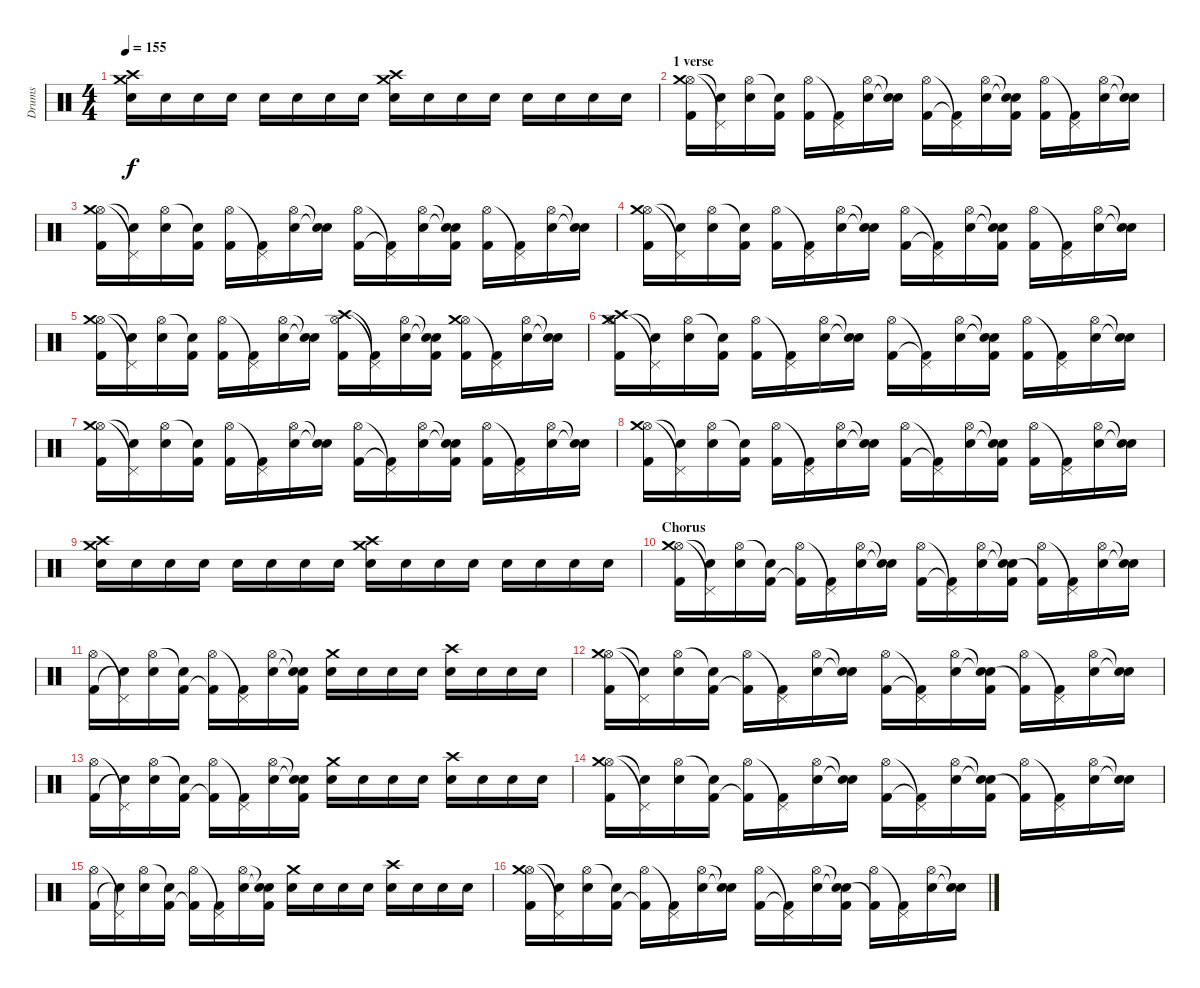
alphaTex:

\track ("Drums" "Drums") {instrument percussion}
\staff {score}
\articulation defaults
\ts (4 4)
\tempo 155
\clef neutral
\ks c
("Crash high (hit)" "Crash medium (hit)" "Snare (hit) 2").16{dy f} "Snare (hit) 2".16 "Snare (hit) 2".16 "Snare (hit) 2".16 "Snare (hit) 2".16 "Snare (hit) 2".16 "Snare (hit) 2".16 "Snare (hit) 2".16 ("Crash high (hit)" "Crash medium (hit)" "Electric Snare (hit)").16 "Electric Snare (hit)".16 "Electric Snare (hit)".16 "Electric Snare (hit)".16 "Electric Snare (hit)".16 "Electric Snare (hit)".16 "Electric Snare (hit)".16 "Electric Snare (hit)".16 |
\section ("" "1 verse")
("Hi-Hat (open)" "Crash medium (hit)" "Kick (hit) 2").16 ("Pedal Hi-Hat (hit)"{t} "Snare (hit)"{t}).16 ("Hi-Hat (open)" "Electric Snare (hit)").16 ("Snare (hit)"{t} "Kick (hit) 2").16 ("Hi-Hat (open)" "Kick (hit) 2").16 ("Pedal Hi-Hat (hit)"{t} "Kick (hit) 2").16 ("Hi-Hat (open)" "Electric Snare (hit)").16 ("Snare (hit)"{t} "Electric Snare (hit)"{t}).16 ("Hi-Hat (open)" "Kick (hit) 2").16 ("Pedal Hi-Hat (hit)"{t} "Kick (hit) 2"{t}).16 ("Hi-Hat (open)" "Electric Snare (hit)").16 ("Snare (hit)"{t} "Electric Snare (hit)"{t} "Kick (hit) 2").16 ("Hi-Hat (open)" "Kick (hit) 2").16 ("Pedal Hi-Hat (hit)"{t} "Kick (hit) 2").16 ("Hi-Hat (open)" "Electric Snare (hit)").16 ("Snare (hit)"{t} "Electric Snare (hit)"{t}).16 |
("Hi-Hat (open)" "Crash medium (hit)" "Kick (hit) 2").16 ("Pedal Hi-Hat (hit)"{t} "Snare (hit)"{t}).16 ("Hi-Hat (open)" "Electric Snare (hit)").16 ("Snare (hit)"{t} "Kick (hit) 2").16 ("Hi-Hat (open)" "Kick (hit) 2").16 ("Pedal Hi-Hat (hit)"{t} "Kick (hit) 2").16 ("Hi-Hat (open)" "Electric Snare (hit)").16 ("Snare (hit)"{t} "Electric Snare (hit)"{t}).16 ("Hi-Hat (open)" "Kick (hit) 2").16 ("Pedal Hi-Hat (hit)"{t} "Kick (hit) 2"{t}).16 ("Hi-Hat (open)" "Electric Snare (hit)").16 ("Snare (hit)"{t} "Electric Snare (hit)"{t} "Kick (hit) 2").16 ("Hi-Hat (open)" "Kick (hit) 2").16 ("Pedal Hi-Hat (hit)"{t} "Kick (hit) 2").16 ("Hi-Hat (open)" "Electric Snare (hit)").16 ("Snare (hit)"{t} "Electric Snare (hit)"{t}).16 |
("Hi-Hat (open)" "Crash medium (hit)" "Kick (hit) 2").16 ("Pedal Hi-Hat (hit)"{t} "Snare (hit)"{t}).16 ("Hi-Hat (open)" "Electric Snare (hit)").16 ("Snare (hit)"{t} "Kick (hit) 2").16 ("Hi-Hat (open)" "Kick (hit) 2").16 ("Pedal Hi-Hat (hit)"{t} "Kick (hit) 2").16 ("Hi-Hat (open)" "Electric Snare (hit)").16 ("Snare (hit)"{t} "Electric Snare (hit)"{t}).16 ("Hi-Hat (open)" "Kick (hit) 2").16 ("Pedal Hi-Hat (hit)"{t} "Kick (hit) 2"{t}).16 ("Hi-Hat (open)" "Electric Snare (hit)").16 ("Snare (hit)"{t} "Electric Snare (hit)"{t} "Kick (hit) 2").16 ("Hi-Hat (open)" "Kick (hit) 2").16 ("Pedal Hi-Hat (hit)"{t} "Kick (hit) 2").16 ("Hi-Hat (open)" "Electric Snare (hit)").16 ("Snare (hit)"{t} "Electric Snare (hit)"{t}).16 |
("Hi-Hat (open)" "Crash medium (hit)" "Kick (hit) 2").16 ("Pedal Hi-Hat (hit)"{t} "Snare (hit)"{t}).16 ("Hi-Hat (open)" "Electric Snare (hit)").16 ("Snare (hit)"{t} "Kick (hit) 2").16 ("Hi-Hat (open)" "Kick (hit) 2").16 ("Pedal Hi-Hat (hit)"{t} "Kick (hit) 2").16 ("Hi-Hat (open)" "Electric Snare (hit)").16 ("Snare (hit)"{t} "Electric Snare (hit)"{t}).16 ("Hi-Hat (open)" "Crash high (hit)" "Kick (hit) 2").16 ("Pedal Hi-Hat (hit)"{t} "Kick (hit) 2"{t}).16 ("Hi-Hat (open)" "Electric Snare (hit)").16 ("Snare (hit)"{t} "Electric Snare (hit)"{t} "Kick (hit) 2").16 ("Hi-Hat (open)" "Crash medium (hit)" "Kick (hit) 2").16 ("Pedal Hi-Hat (hit)"{t} "Kick (hit) 2").16 ("Hi-Hat (open)" "Electric Snare (hit)").16 ("Snare (hit)"{t} "Electric Snare (hit)"{t}).16 |
("Hi-Hat (open)" "Crash medium (hit)" "Crash high (hit)" "Kick (hit) 2").16 ("Pedal Hi-Hat (hit)"{t} "Snare (hit)"{t}).16 ("Hi-Hat (open)" "Electric Snare (hit)").16 ("Snare (hit)"{t} "Kick (hit) 2").16 ("Hi-Hat (open)" "Kick (hit) 2").16 ("Pedal Hi-Hat (hit)"{t} "Kick (hit) 2").16 ("Hi-Hat (open)" "Electric Snare (hit)").16 ("Snare (hit)"{t} "Electric Snare (hit)"{t}).16 ("Hi-Hat (open)" "Kick (hit) 2").16 ("Pedal Hi-Hat (hit)"{t} "Kick (hit) 2"{t}).16 ("Hi-Hat (open)" "Electric Snare (hit)").16 ("Snare (hit)"{t} "Electric Snare (hit)"{t} "Kick (hit) 2").16 ("Hi-Hat (open)" "Kick (hit) 2").16 ("Pedal Hi-Hat (hit)"{t} "Kick (hit) 2").16 ("Hi-Hat (open)" "Electric Snare (hit)").16 ("Snare (hit)"{t} "Electric Snare (hit)"{t}).16 |
("Hi-Hat (open)" "Crash medium (hit)" "Kick (hit) 2").16 ("Pedal Hi-Hat (hit)"{t} "Snare (hit)"{t}).16 ("Hi-Hat (open)" "Electric Snare (hit)").16 ("Snare (hit)"{t} "Kick (hit) 2").16 ("Hi-Hat (open)" "Kick (hit) 2").16 ("Pedal Hi-Hat (hit)"{t} "Kick (hit) 2").16 ("Hi-Hat (open)" "Electric Snare (hit)").16 ("Snare (hit)"{t} "Electric Snare (hit)"{t}).16 ("Hi-Hat (open)" "Kick (hit) 2").16 ("Pedal Hi-Hat (hit)"{t} "Kick (hit) 2"{t}).16 ("Hi-Hat (open)" "Electric Snare (hit)").16 ("Snare (hit)"{t} "Electric Snare (hit)"{t} "Kick (hit) 2").16 ("Hi-Hat (open)" "Kick (hit) 2").16 ("Pedal Hi-Hat (hit)"{t} "Kick (hit) 2").16 ("Hi-Hat (open)" "Electric Snare (hit)").16 ("Snare (hit)"{t} "Electric Snare (hit)"{t}).16 |
("Hi-Hat (open)" "Crash medium (hit)" "Kick (hit) 2").16 ("Pedal Hi-Hat (hit)"{t} "Snare (hit)"{t}).16 ("Hi-Hat (open)" "Electric Snare (hit)").16 ("Snare (hit)"{t} "Kick (hit) 2").16 ("Hi-Hat (open)" "Kick (hit) 2").16 ("Pedal Hi-Hat (hit)"{t} "Kick (hit) 2").16 ("Hi-Hat (open)" "Electric Snare (hit)").16 ("Snare (hit)"{t} "Electric Snare (hit)"{t}).16 ("Hi-Hat (open)" "Kick (hit) 2").16 ("Pedal Hi-Hat (hit)"{t} "Kick (hit) 2"{t}).16 ("Hi-Hat (open)" "Electric Snare (hit)").16 ("Snare (hit)"{t} "Electric Snare (hit)"{t} "Kick (hit) 2").16 ("Hi-Hat (open)" "Kick (hit) 2").16 ("Pedal Hi-Hat (hit)"{t} "Kick (hit) 2").16 ("Hi-Hat (open)" "Electric Snare (hit)").16 ("Snare (hit)"{t} "Electric Snare (hit)"{t}).16 |
("Crash high (hit)" "Crash medium (hit)" "Snare (hit) 2").16 "Snare (hit) 2".16 "Snare (hit) 2".16 "Snare (hit) 2".16 "Snare (hit) 2".16 "Snare (hit) 2".16 "Snare (hit) 2".16 "Snare (hit) 2".16 ("Crash high (hit)" "Crash medium (hit)" "Electric Snare (hit)").16 "Electric Snare (hit)".16 "Electric Snare (hit)".16 "Electric Snare (hit)".16 "Electric Snare (hit)".16 "Electric Snare (hit)".16 "Electric Snare (hit)".16 "Electric Snare (hit)".16 |
\section ("" "Chorus")
("Hi-Hat (open)" "Crash medium (hit)" "Kick (hit) 2").16 ("Pedal Hi-Hat (hit)"{t} "Snare (hit)"{t}).16 ("Hi-Hat (open)" "Electric Snare (hit)").16 ("Snare (hit)"{t} "Kick (hit) 2").16 ("Hi-Hat (open)" "Kick (hit) 2"{t}).16 ("Pedal Hi-Hat (hit)"{t} "Kick (hit) 2").16 ("Hi-Hat (open)" "Electric Snare (hit)").16 ("Snare (hit)"{t} "Electric Snare (hit)"{t}).16 ("Hi-Hat (open)" "Kick (hit) 2").16 ("Pedal Hi-Hat (hit)"{t} "Kick (hit) 2"{t}).16 ("Hi-Hat (open)" "Electric Snare (hit)").16 ("Snare (hit)"{t} "Electric Snare (hit)"{t} "Kick (hit) 2").16 ("Hi-Hat (open)" "Kick (hit) 2"{t}).16 ("Pedal Hi-Hat (hit)"{t} "Kick (hit) 2").16 ("Hi-Hat (open)" "Electric Snare (hit)").16 ("Snare (hit)"{t} "Electric Snare (hit)"{t}).16 |
("Hi-Hat (open)" "Kick (hit) 2").16 ("Pedal Hi-Hat (hit)"{t} "Snare (hit)"{t}).16 ("Hi-Hat (open)" "Electric Snare (hit)").16 ("Snare (hit)"{t} "Kick (hit) 2").16 ("Hi-Hat (open)" "Kick (hit) 2"{t}).16 ("Pedal Hi-Hat (hit)"{t} "Kick (hit) 2").16 ("Hi-Hat (open)" "Electric Snare (hit)").16 ("Snare (hit)"{t} "Electric Snare (hit)"{t} "Kick (hit) 2").16 ("Crash medium (hit)" "Electric Snare (hit)").16 "Electric Snare (hit)".16 "Electric Snare (hit)".16 "Electric Snare (hit)".16 ("Crash high (hit)" "Electric Snare (hit)").16 "Electric Snare (hit)".16 "Electric Snare (hit)".16 "Electric Snare (hit)".16 |
("Hi-Hat (open)" "Crash medium (hit)" "Kick (hit) 2").16 ("Pedal Hi-Hat (hit)"{t} "Snare (hit)"{t}).16 ("Hi-Hat (open)" "Electric Snare (hit)").16 ("Snare (hit)"{t} "Kick (hit) 2").16 ("Hi-Hat (open)" "Kick (hit) 2"{t}).16 ("Pedal Hi-Hat (hit)"{t} "Kick (hit) 2").16 ("Hi-Hat (open)" "Electric Snare (hit)").16 ("Snare (hit)"{t} "Electric Snare (hit)"{t}).16 ("Hi-Hat (open)" "Kick (hit) 2").16 ("Pedal Hi-Hat (hit)"{t} "Kick (hit) 2"{t}).16 ("Hi-Hat (open)" "Electric Snare (hit)").16 ("Snare (hit)"{t} "Electric Snare (hit)"{t} "Kick (hit) 2").16 ("Hi-Hat (open)" "Kick (hit) 2"{t}).16 ("Pedal Hi-Hat (hit)"{t} "Kick (hit) 2").16 ("Hi-Hat (open)" "Electric Snare (hit)").16 ("Snare (hit)"{t} "Electric Snare (hit)"{t}).16 |
("Hi-Hat (open)" "Kick (hit) 2").16 ("Pedal Hi-Hat (hit)"{t} "Snare (hit)"{t}).16 ("Hi-Hat (open)" "Electric Snare (hit)").16 ("Snare (hit)"{t} "Kick (hit) 2").16 ("Hi-Hat (open)" "Kick (hit) 2"{t}).16 ("Pedal Hi-Hat (hit)"{t} "Kick (hit) 2").16 ("Hi-Hat (open)" "Electric Snare (hit)").16 ("Snare (hit)"{t} "Electric Snare (hit)"{t} "Kick (hit) 2").16 ("Crash medium (hit)" "Electric Snare (hit)").16 "Electric Snare (hit)".16 "Electric Snare (hit)".16 "Electric Snare (hit)".16 ("Crash high (hit)" "Electric Snare (hit)").16 "Electric Snare (hit)".16 "Electric Snare (hit)".16 "Electric Snare (hit)".16 |
("Hi-Hat (open)" "Crash medium (hit)" "Kick (hit) 2").16 ("Pedal Hi-Hat (hit)"{t} "Snare (hit)"{t}).16 ("Hi-Hat (open)" "Electric Snare (hit)").16 ("Snare (hit)"{t} "Kick (hit) 2").16 ("Hi-Hat (open)" "Kick (hit) 2"{t}).16 ("Pedal Hi-Hat (hit)"{t} "Kick (hit) 2").16 ("Hi-Hat (open)" "Electric Snare (hit)").16 ("Snare (hit)"{t} "Electric Snare (hit)"{t}).16 ("Hi-Hat (open)" "Kick (hit) 2").16 ("Pedal Hi-Hat (hit)"{t} "Kick (hit) 2"{t}).16 ("Hi-Hat (open)" "Electric Snare (hit)").16 ("Snare (hit)"{t} "Electric Snare (hit)"{t} "Kick (hit) 2").16 ("Hi-Hat (open)" "Kick (hit) 2"{t}).16 ("Pedal Hi-Hat (hit)"{t} "Kick (hit) 2").16 ("Hi-Hat (open)" "Electric Snare (hit)").16 ("Snare (hit)"{t} "Electric Snare (hit)"{t}).16 |
("Hi-Hat (open)" "Kick (hit) 2").16 ("Pedal Hi-Hat (hit)"{t} "Snare (hit)"{t}).16 ("Hi-Hat (open)" "Electric Snare (hit)").16 ("Snare (hit)"{t} "Kick (hit) 2").16 ("Hi-Hat (open)" "Kick (hit) 2"{t}).16 ("Pedal Hi-Hat (hit)"{t} "Kick (hit) 2").16 ("Hi-Hat (open)" "Electric Snare (hit)").16 ("Snare (hit)"{t} "Electric Snare (hit)"{t} "Kick (hit) 2").16 ("Crash medium (hit)" "Electric Snare (hit)").16 "Electric Snare (hit)".16 "Electric Snare (hit)".16 "Electric Snare (hit)".16 ("Crash high (hit)" "Electric Snare (hit)").16 "Electric Snare (hit)".16 "Electric Snare (hit)".16 "Electric Snare (hit)".16 |
("Hi-Hat (open)" "Crash medium (hit)" "Kick (hit) 2").16 ("Pedal Hi-Hat (hit)"{t} "Snare (hit)"{t}).16 ("Hi-Hat (open)" "Electric Snare (hit)").16 ("Snare (hit)"{t} "Kick (hit) 2").16 ("Hi-Hat (open)" "Kick (hit) 2"{t}).16 ("Pedal Hi-Hat (hit)"{t} "Kick (hit) 2").16 ("Hi-Hat (open)" "Electric Snare (hit)").16 ("Snare (hit)"{t} "Electric Snare (hit)"{t}).16 ("Hi-Hat (open)" "Kick (hit) 2").16 ("Pedal Hi-Hat (hit)"{t} "Kick (hit) 2"{t}).16 ("Hi-Hat (open)" "Electric Snare (hit)").16 ("Snare (hit)"{t} "Electric Snare (hit)"{t} "Kick (hit) 2").16 ("Hi-Hat (open)" "Kick (hit) 2"{t}).16 ("Pedal Hi-Hat (hit)"{t} "Kick (hit) 2").16 ("Hi-Hat (open)" "Electric Snare (hit)").16 ("Snare (hit)"{t} "Electric Snare (hit)"{t}).16
